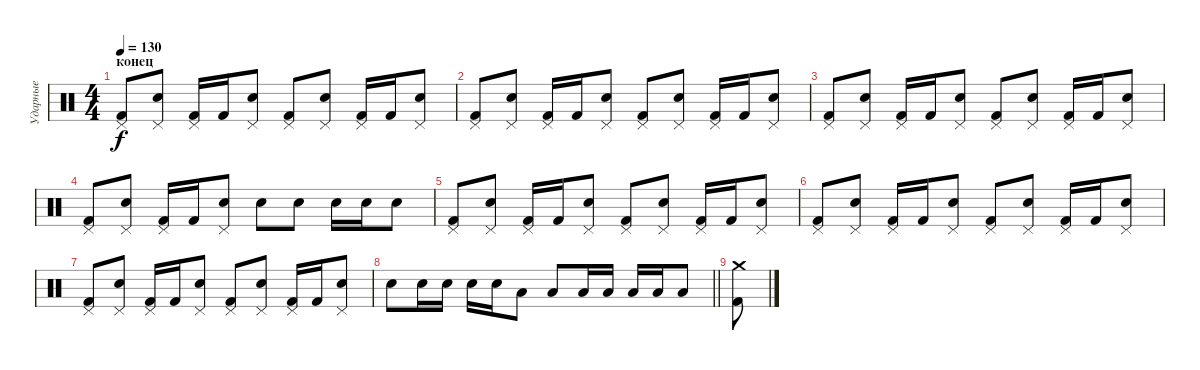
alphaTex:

\track ("Ударные" "Ударные") {instrument percussion}
\staff {score}
\articulation defaults
\ts (4 4)
\section ("" "конец")
\tempo 130
\clef neutral
\ks c
("Pedal Hi-Hat (hit)" "Kick (hit) 2").8{dy f} ("Pedal Hi-Hat (hit)" "Electric Snare (hit)").8 ("Pedal Hi-Hat (hit)" "Kick (hit) 2").16 "Kick (hit) 2".16 ("Pedal Hi-Hat (hit)" "Electric Snare (hit)").8 ("Pedal Hi-Hat (hit)" "Kick (hit) 2").8 ("Pedal Hi-Hat (hit)" "Electric Snare (hit)").8 ("Pedal Hi-Hat (hit)" "Kick (hit) 2").16 "Kick (hit) 2".16 ("Pedal Hi-Hat (hit)" "Electric Snare (hit)").8 |
("Pedal Hi-Hat (hit)" "Kick (hit) 2").8 ("Pedal Hi-Hat (hit)" "Electric Snare (hit)").8 ("Pedal Hi-Hat (hit)" "Kick (hit) 2").16 "Kick (hit) 2".16 ("Pedal Hi-Hat (hit)" "Electric Snare (hit)").8 ("Pedal Hi-Hat (hit)" "Kick (hit) 2").8 ("Pedal Hi-Hat (hit)" "Electric Snare (hit)").8 ("Pedal Hi-Hat (hit)" "Kick (hit) 2").16 "Kick (hit) 2".16 ("Pedal Hi-Hat (hit)" "Electric Snare (hit)").8 |
("Pedal Hi-Hat (hit)" "Kick (hit) 2").8 ("Pedal Hi-Hat (hit)" "Electric Snare (hit)").8 ("Pedal Hi-Hat (hit)" "Kick (hit) 2").16 "Kick (hit) 2".16 ("Pedal Hi-Hat (hit)" "Electric Snare (hit)").8 ("Pedal Hi-Hat (hit)" "Kick (hit) 2").8 ("Pedal Hi-Hat (hit)" "Electric Snare (hit)").8 ("Pedal Hi-Hat (hit)" "Kick (hit) 2").16 "Kick (hit) 2".16 ("Pedal Hi-Hat (hit)" "Electric Snare (hit)").8 |
("Pedal Hi-Hat (hit)" "Kick (hit) 2").8 ("Pedal Hi-Hat (hit)" "Electric Snare (hit)").8 ("Pedal Hi-Hat (hit)" "Kick (hit) 2").16 "Kick (hit) 2".16 ("Pedal Hi-Hat (hit)" "Electric Snare (hit)").8 "Electric Snare (hit)".8 "Electric Snare (hit)".8 "Electric Snare (hit)".16 "Electric Snare (hit)".16 "Electric Snare (hit)".8 |
("Pedal Hi-Hat (hit)" "Kick (hit) 2").8 ("Pedal Hi-Hat (hit)" "Electric Snare (hit)").8 ("Pedal Hi-Hat (hit)" "Kick (hit) 2").16 "Kick (hit) 2".16 ("Pedal Hi-Hat (hit)" "Electric Snare (hit)").8 ("Pedal Hi-Hat (hit)" "Kick (hit) 2").8 ("Pedal Hi-Hat (hit)" "Electric Snare (hit)").8 ("Pedal Hi-Hat (hit)" "Kick (hit) 2").16 "Kick (hit) 2".16 ("Pedal Hi-Hat (hit)" "Electric Snare (hit)").8 |
("Pedal Hi-Hat (hit)" "Kick (hit) 2").8 ("Pedal Hi-Hat (hit)" "Electric Snare (hit)").8 ("Pedal Hi-Hat (hit)" "Kick (hit) 2").16 "Kick (hit) 2".16 ("Pedal Hi-Hat (hit)" "Electric Snare (hit)").8 ("Pedal Hi-Hat (hit)" "Kick (hit) 2").8 ("Pedal Hi-Hat (hit)" "Electric Snare (hit)").8 ("Pedal Hi-Hat (hit)" "Kick (hit) 2").16 "Kick (hit) 2".16 ("Pedal Hi-Hat (hit)" "Electric Snare (hit)").8 |
("Pedal Hi-Hat (hit)" "Kick (hit) 2").8 ("Pedal Hi-Hat (hit)" "Electric Snare (hit)").8 ("Pedal Hi-Hat (hit)" "Kick (hit) 2").16 "Kick (hit) 2".16 ("Pedal Hi-Hat (hit)" "Electric Snare (hit)").8 ("Pedal Hi-Hat (hit)" "Kick (hit) 2").8 ("Pedal Hi-Hat (hit)" "Electric Snare (hit)").8 ("Pedal Hi-Hat (hit)" "Kick (hit) 2").16 "Kick (hit) 2".16 ("Pedal Hi-Hat (hit)" "Electric Snare (hit)").8 |
\barLineRight lightlight "Electric Snare (hit)".8 "Electric Snare (hit)".16 "Electric Snare (hit)".16 "Electric Snare (hit)".16 "Electric Snare (hit)".16 "Low Tom (hit)".8 "Low Tom (hit)".8 "Low Tom (hit)".16 "Low Tom (hit)".16 "Low Tom (hit)".16 "Low Tom (hit)".16 "Low Tom (hit)".8
|
("Kick (hit) 2" "Crash medium (hit)").8
